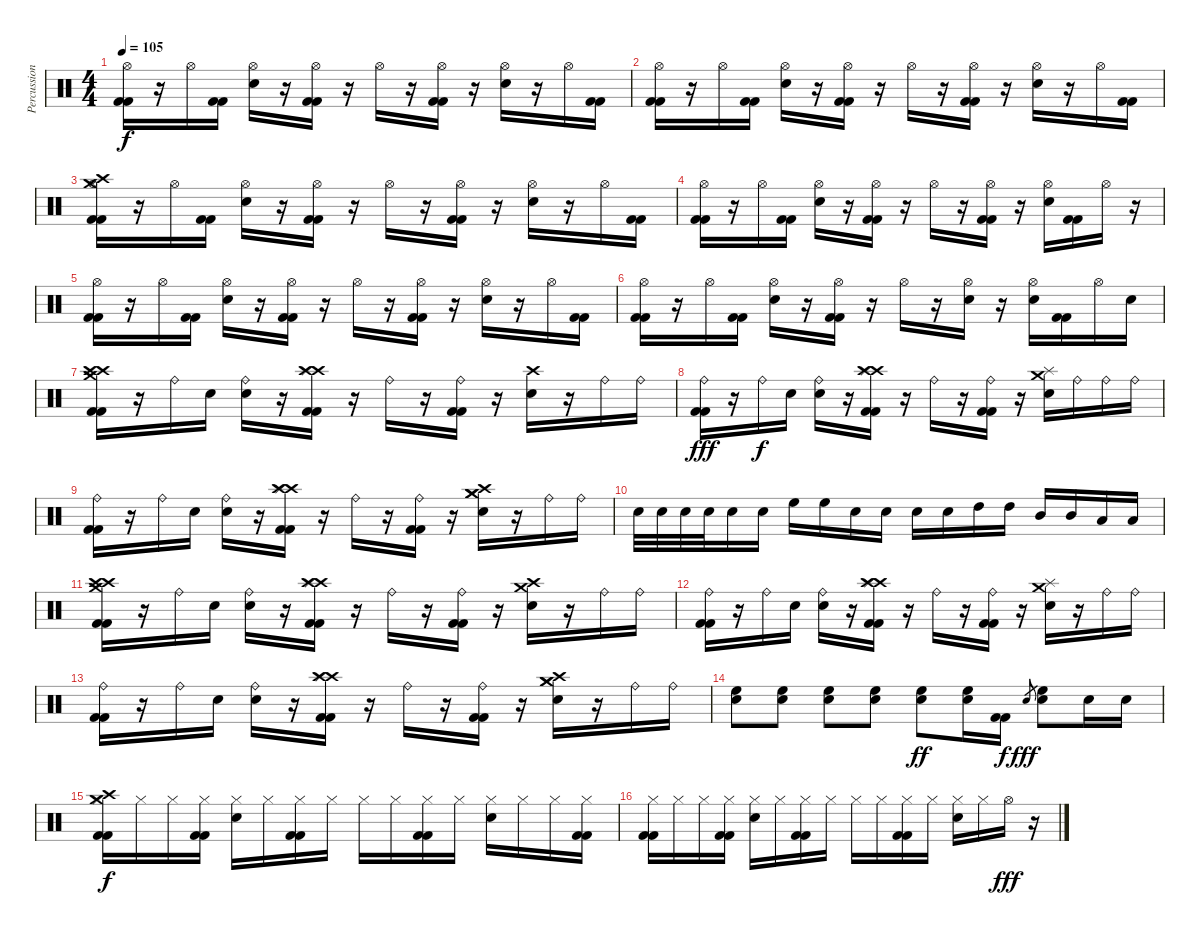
\track ("Percussion" "Percussion") {instrument percussion}
\staff {score}
\articulation defaults
\ts (4 4)
\tempo 105
\clef neutral
\ks c
("Hi-Hat (open)" "Kick (hit) 2" "Kick (hit) 2").16{dy f} r.16 "Hi-Hat (open)".16 ("Kick (hit) 2" "Kick (hit) 2").16 ("Hi-Hat (open)" "Electric Snare (hit)").16 r.16 ("Hi-Hat (open)" "Kick (hit) 2" "Kick (hit) 2").16 r.16 "Hi-Hat (open)".16 r.16 ("Hi-Hat (open)" "Kick (hit) 2" "Kick (hit) 2").16 r.16 ("Hi-Hat (open)" "Electric Snare (hit)").16 r.16 "Hi-Hat (open)".16 ("Kick (hit) 2" "Kick (hit) 2").16 |
("Hi-Hat (open)" "Kick (hit) 2" "Kick (hit) 2").16 r.16 "Hi-Hat (open)".16 ("Kick (hit) 2" "Kick (hit) 2").16 ("Hi-Hat (open)" "Electric Snare (hit)").16 r.16 ("Hi-Hat (open)" "Kick (hit) 2" "Kick (hit) 2").16 r.16 "Hi-Hat (open)".16 r.16 ("Hi-Hat (open)" "Kick (hit) 2" "Kick (hit) 2").16 r.16 ("Hi-Hat (open)" "Electric Snare (hit)").16 r.16 "Hi-Hat (open)".16 ("Kick (hit) 2" "Kick (hit) 2").16 |
("Hi-Hat (open)" "Crash high (hit)" "Crash medium (hit)" "Kick (hit) 2" "Kick (hit) 2").16 r.16 "Hi-Hat (open)".16 ("Kick (hit) 2" "Kick (hit) 2").16 ("Hi-Hat (open)" "Electric Snare (hit)").16 r.16 ("Hi-Hat (open)" "Kick (hit) 2" "Kick (hit) 2").16 r.16 "Hi-Hat (open)".16 r.16 ("Hi-Hat (open)" "Kick (hit) 2" "Kick (hit) 2").16 r.16 ("Hi-Hat (open)" "Electric Snare (hit)").16 r.16 "Hi-Hat (open)".16 ("Kick (hit) 2" "Kick (hit) 2").16 |
("Hi-Hat (open)" "Kick (hit) 2" "Kick (hit) 2").16 r.16 "Hi-Hat (open)".16 ("Kick (hit) 2" "Kick (hit) 2").16 ("Hi-Hat (open)" "Electric Snare (hit)").16 r.16 ("Hi-Hat (open)" "Kick (hit) 2" "Kick (hit) 2").16 r.16 "Hi-Hat (open)".16 r.16 ("Hi-Hat (open)" "Kick (hit) 2" "Kick (hit) 2").16 r.16 ("Hi-Hat (open)" "Electric Snare (hit)").16 ("Kick (hit) 2" "Kick (hit) 2").16 "Hi-Hat (open)".16 r.16 |
("Hi-Hat (open)" "Kick (hit) 2" "Kick (hit) 2").16 r.16 "Hi-Hat (open)".16 ("Kick (hit) 2" "Kick (hit) 2").16 ("Hi-Hat (open)" "Electric Snare (hit)").16 r.16 ("Hi-Hat (open)" "Kick (hit) 2" "Kick (hit) 2").16 r.16 "Hi-Hat (open)".16 r.16 ("Hi-Hat (open)" "Kick (hit) 2" "Kick (hit) 2").16 r.16 ("Hi-Hat (open)" "Electric Snare (hit)").16 r.16 "Hi-Hat (open)".16 ("Kick (hit) 2" "Kick (hit) 2").16 |
("Hi-Hat (open)" "Kick (hit) 2" "Kick (hit) 2").16 r.16 "Hi-Hat (open)".16 ("Kick (hit) 2" "Kick (hit) 2").16 ("Hi-Hat (open)" "Electric Snare (hit)").16 r.16 ("Hi-Hat (open)" "Kick (hit) 2" "Kick (hit) 2").16 r.16 "Hi-Hat (open)".16 r.16 ("Hi-Hat (open)" "Electric Snare (hit)").16 r.16 ("Hi-Hat (open)" "Electric Snare (hit)").16 ("Kick (hit) 2" "Kick (hit) 2").16 "Hi-Hat (open)".16 "Electric Snare (hit)".16 |
("Crash high (hit)" "Crash high (hit)" "Crash medium (hit)" "Kick (hit) 2" "Kick (hit) 2").16 r.16 "Ride (bell)".16 "Electric Snare (hit)".16 ("Ride (bell)" "Electric Snare (hit)").16 r.16 ("Crash high (hit)" "Crash high (hit)" "Splash (hit)" "Kick (hit) 2" "Kick (hit) 2").16 r.16 "Ride (bell)".16 r.16 ("Ride (bell)" "Kick (hit) 2" "Kick (hit) 2").16 r.16 ("Crash high (hit)" "Electric Snare (hit)").16 r.16 "Ride (bell)".16 "Ride (bell)".16 |
("Ride (bell)" "Kick (hit) 2" "Kick (hit) 2").16{dy fff} r.16 "Ride (bell)".16{dy f} "Electric Snare (hit)".16 ("Ride (bell)" "Electric Snare (hit)").16 r.16 ("Crash high (hit)" "Crash high (hit)" "Splash (hit)" "Kick (hit) 2" "Kick (hit) 2").16 r.16 "Ride (bell)".16 r.16 ("Ride (bell)" "Kick (hit) 2" "Kick (hit) 2").16 r.16 ("Crash medium (hit)" "Splash (hit)" "Electric Snare (hit)").16 "Ride (bell)".16 "Ride (bell)".16 "Ride (bell)".16 |
("Ride (bell)" "Kick (hit) 2" "Kick (hit) 2").16 r.16 "Ride (bell)".16 "Electric Snare (hit)".16 ("Ride (bell)" "Electric Snare (hit)").16 r.16 ("Crash high (hit)" "Crash high (hit)" "Splash (hit)" "Kick (hit) 2" "Kick (hit) 2").16 r.16 "Ride (bell)".16 r.16 ("Ride (bell)" "Kick (hit) 2" "Kick (hit) 2").16 r.16 ("Crash high (hit)" "Crash medium (hit)" "Crash medium (hit)" "Electric Snare (hit)").16 r.16 "Ride (bell)".16 "Ride (bell)".16 |
"Electric Snare (hit)".32 "Electric Snare (hit)".32 "Electric Snare (hit)".32 "Electric Snare (hit)".32 "Electric Snare (hit)".16 "Electric Snare (hit)".16 "High Floor Tom (hit)".16 "High Floor Tom (hit)".16 "Electric Snare (hit)".16 "Electric Snare (hit)".16 "Electric Snare (hit)".16 "Electric Snare (hit)".16 "High Tom (hit)".16 "High Tom (hit)".16 "Mid Tom (hit)".16 "Mid Tom (hit)".16 "Low Tom (hit)".16 "Low Tom (hit)".16 |
("Crash high (hit)" "Crash high (hit)" "Crash medium (hit)" "Kick (hit) 2" "Kick (hit) 2").16 r.16 "Ride (bell)".16 "Electric Snare (hit)".16 ("Ride (bell)" "Electric Snare (hit)").16 r.16 ("Crash high (hit)" "Crash high (hit)" "Splash (hit)" "Kick (hit) 2" "Kick (hit) 2").16 r.16 "Ride (bell)".16 r.16 ("Ride (bell)" "Kick (hit) 2" "Kick (hit) 2").16 r.16 ("Crash high (hit)" "Crash medium (hit)" "Electric Snare (hit)").16 r.16 "Ride (bell)".16 "Ride (bell)".16 |
("Ride (bell)" "Kick (hit) 2" "Kick (hit) 2").16 r.16 "Ride (bell)".16 "Electric Snare (hit)".16 ("Ride (bell)" "Electric Snare (hit)").16 r.16 ("Crash high (hit)" "Crash high (hit)" "Splash (hit)" "Kick (hit) 2" "Kick (hit) 2").16 r.16 "Ride (bell)".16 r.16 ("Ride (bell)" "Kick (hit) 2" "Kick (hit) 2").16 r.16 ("Crash medium (hit)" "Splash (hit)" "Electric Snare (hit)").16 r.16 "Ride (bell)".16 "Ride (bell)".16 |
("Ride (bell)" "Kick (hit) 2" "Kick (hit) 2").16 r.16 "Ride (bell)".16 "Electric Snare (hit)".16 ("Ride (bell)" "Electric Snare (hit)").16 r.16 ("Crash high (hit)" "Crash high (hit)" "Splash (hit)" "Kick (hit) 2" "Kick (hit) 2").16 r.16 "Ride (bell)".16 r.16 ("Ride (bell)" "Kick (hit) 2" "Kick (hit) 2").16 r.16 ("Crash high (hit)" "Crash medium (hit)" "Crash medium (hit)" "Electric Snare (hit)").16 r.16 "Ride (bell)".16 "Ride (bell)".16 |
("High Floor Tom (hit)" "Electric Snare (hit)").8 ("High Floor Tom (hit)" "Electric Snare (hit)").8 ("High Floor Tom (hit)" "Electric Snare (hit)").8 ("High Floor Tom (hit)" "Electric Snare (hit)").8 ("High Floor Tom (hit)" "Electric Snare (hit)").8{dy ff} ("High Floor Tom (hit)" "Electric Snare (hit)").16 ("Kick (hit) 2" "Kick (hit) 2").16{dy f} "Electric Snare (hit)".8{gr dy fff} ("High Floor Tom (hit)" "Electric Snare (hit)").8 "Electric Snare (hit)".16 "Electric Snare (hit)".16 |
("Hi-Hat (closed)" "Crash high (hit)" "Crash medium (hit)" "Kick (hit) 2" "Kick (hit) 2").16{dy f} "Hi-Hat (closed)".16 "Hi-Hat (closed)".16 ("Hi-Hat (closed)" "Kick (hit) 2" "Kick (hit) 2").16 ("Hi-Hat (closed)" "Electric Snare (hit)").16 "Hi-Hat (closed)".16 ("Hi-Hat (closed)" "Kick (hit) 2" "Kick (hit) 2").16 "Hi-Hat (closed)".16 "Hi-Hat (closed)".16 "Hi-Hat (closed)".16 ("Hi-Hat (closed)" "Kick (hit) 2" "Kick (hit) 2").16 "Hi-Hat (closed)".16 ("Hi-Hat (closed)" "Electric Snare (hit)").16 "Hi-Hat (closed)".16 "Hi-Hat (closed)".16 ("Hi-Hat (closed)" "Kick (hit) 2" "Kick (hit) 2").16 |
("Hi-Hat (closed)" "Kick (hit) 2" "Kick (hit) 2").16 "Hi-Hat (closed)".16 "Hi-Hat (closed)".16 ("Hi-Hat (closed)" "Kick (hit) 2" "Kick (hit) 2").16 ("Hi-Hat (closed)" "Electric Snare (hit)").16 "Hi-Hat (closed)".16 ("Hi-Hat (closed)" "Kick (hit) 2" "Kick (hit) 2").16 "Hi-Hat (closed)".16 "Hi-Hat (closed)".16 "Hi-Hat (closed)".16 ("Hi-Hat (closed)" "Kick (hit) 2" "Kick (hit) 2").16 "Hi-Hat (closed)".16 ("Hi-Hat (closed)" "Electric Snare (hit)").16 "Hi-Hat (closed)".16 "Hi-Hat (open)".16{dy fff} r.16
